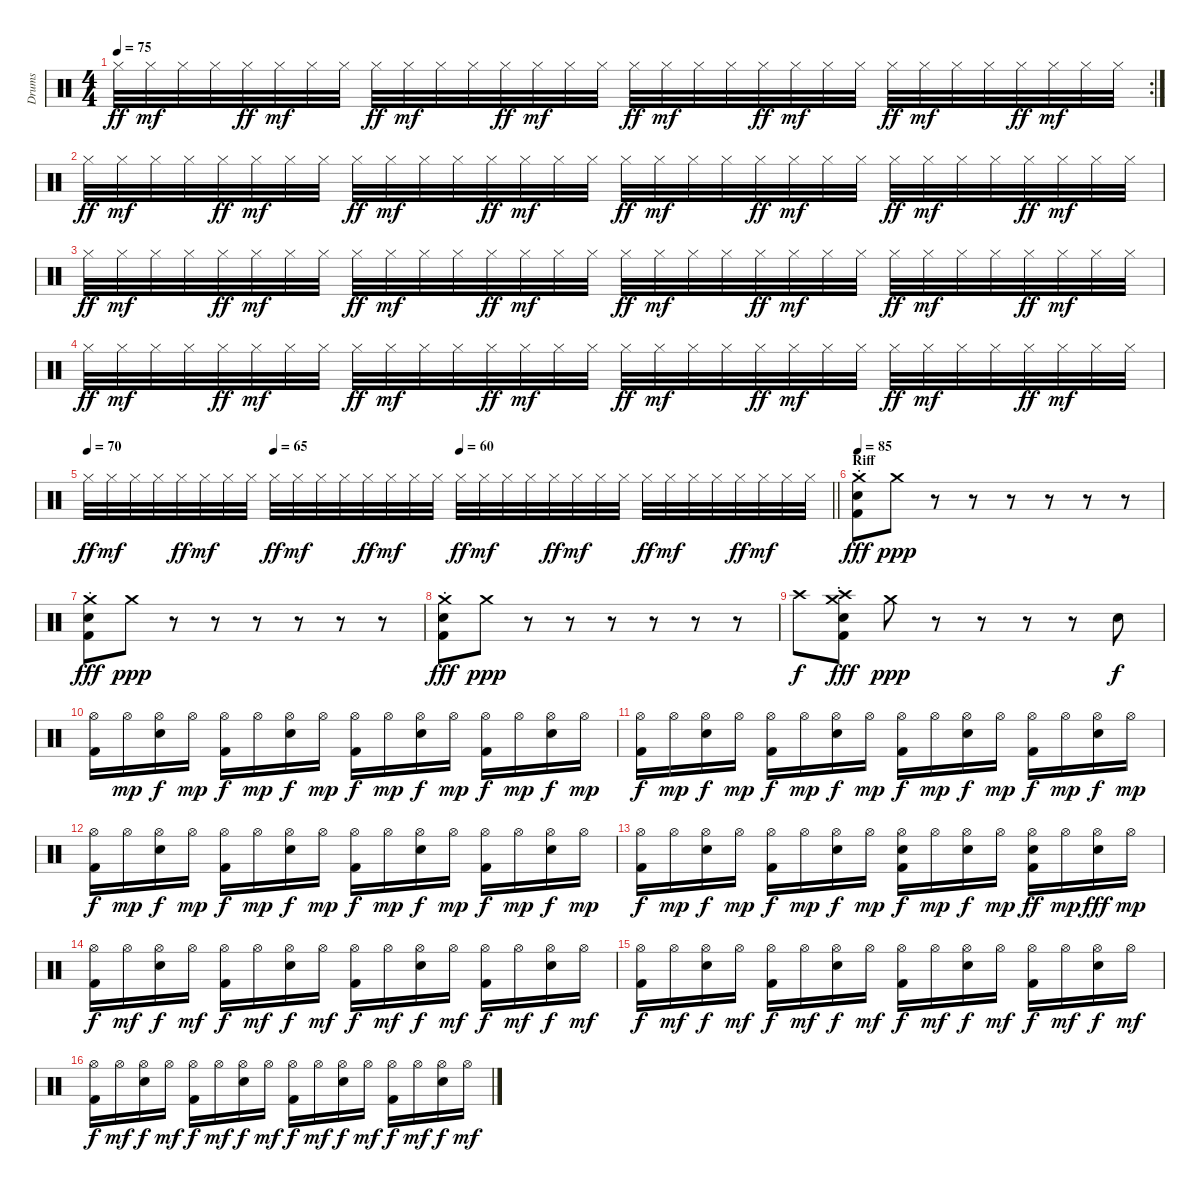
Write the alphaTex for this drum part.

\track ("Drums" "Drums") {instrument percussion}
\staff {score}
\articulation defaults
\rc 2
\ts (4 4)
\tempo 75
\clef neutral
\ks aminor "Hi-Hat (closed)".32{dy ff} "Hi-Hat (closed)".32{dy mf} "Hi-Hat (closed)".32 "Hi-Hat (closed)".32 "Hi-Hat (closed)".32{dy ff} "Hi-Hat (closed)".32{dy mf} "Hi-Hat (closed)".32 "Hi-Hat (closed)".32 "Hi-Hat (closed)".32{dy ff} "Hi-Hat (closed)".32{dy mf} "Hi-Hat (closed)".32 "Hi-Hat (closed)".32 "Hi-Hat (closed)".32{dy ff} "Hi-Hat (closed)".32{dy mf} "Hi-Hat (closed)".32 "Hi-Hat (closed)".32 "Hi-Hat (closed)".32{dy ff} "Hi-Hat (closed)".32{dy mf} "Hi-Hat (closed)".32 "Hi-Hat (closed)".32 "Hi-Hat (closed)".32{dy ff} "Hi-Hat (closed)".32{dy mf} "Hi-Hat (closed)".32 "Hi-Hat (closed)".32 "Hi-Hat (closed)".32{dy ff} "Hi-Hat (closed)".32{dy mf} "Hi-Hat (closed)".32 "Hi-Hat (closed)".32 "Hi-Hat (closed)".32{dy ff} "Hi-Hat (closed)".32{dy mf} "Hi-Hat (closed)".32 "Hi-Hat (closed)".32
|
"Hi-Hat (closed)".32{dy ff} "Hi-Hat (closed)".32{dy mf} "Hi-Hat (closed)".32 "Hi-Hat (closed)".32 "Hi-Hat (closed)".32{dy ff} "Hi-Hat (closed)".32{dy mf} "Hi-Hat (closed)".32 "Hi-Hat (closed)".32 "Hi-Hat (closed)".32{dy ff} "Hi-Hat (closed)".32{dy mf} "Hi-Hat (closed)".32 "Hi-Hat (closed)".32 "Hi-Hat (closed)".32{dy ff} "Hi-Hat (closed)".32{dy mf} "Hi-Hat (closed)".32 "Hi-Hat (closed)".32 "Hi-Hat (closed)".32{dy ff} "Hi-Hat (closed)".32{dy mf} "Hi-Hat (closed)".32 "Hi-Hat (closed)".32 "Hi-Hat (closed)".32{dy ff} "Hi-Hat (closed)".32{dy mf} "Hi-Hat (closed)".32 "Hi-Hat (closed)".32 "Hi-Hat (closed)".32{dy ff} "Hi-Hat (closed)".32{dy mf} "Hi-Hat (closed)".32 "Hi-Hat (closed)".32 "Hi-Hat (closed)".32{dy ff} "Hi-Hat (closed)".32{dy mf} "Hi-Hat (closed)".32 "Hi-Hat (closed)".32 |
"Hi-Hat (closed)".32{dy ff} "Hi-Hat (closed)".32{dy mf} "Hi-Hat (closed)".32 "Hi-Hat (closed)".32 "Hi-Hat (closed)".32{dy ff} "Hi-Hat (closed)".32{dy mf} "Hi-Hat (closed)".32 "Hi-Hat (closed)".32 "Hi-Hat (closed)".32{dy ff} "Hi-Hat (closed)".32{dy mf} "Hi-Hat (closed)".32 "Hi-Hat (closed)".32 "Hi-Hat (closed)".32{dy ff} "Hi-Hat (closed)".32{dy mf} "Hi-Hat (closed)".32 "Hi-Hat (closed)".32 "Hi-Hat (closed)".32{dy ff} "Hi-Hat (closed)".32{dy mf} "Hi-Hat (closed)".32 "Hi-Hat (closed)".32 "Hi-Hat (closed)".32{dy ff} "Hi-Hat (closed)".32{dy mf} "Hi-Hat (closed)".32 "Hi-Hat (closed)".32 "Hi-Hat (closed)".32{dy ff} "Hi-Hat (closed)".32{dy mf} "Hi-Hat (closed)".32 "Hi-Hat (closed)".32 "Hi-Hat (closed)".32{dy ff} "Hi-Hat (closed)".32{dy mf} "Hi-Hat (closed)".32 "Hi-Hat (closed)".32 |
"Hi-Hat (closed)".32{dy ff} "Hi-Hat (closed)".32{dy mf} "Hi-Hat (closed)".32 "Hi-Hat (closed)".32 "Hi-Hat (closed)".32{dy ff} "Hi-Hat (closed)".32{dy mf} "Hi-Hat (closed)".32 "Hi-Hat (closed)".32 "Hi-Hat (closed)".32{dy ff} "Hi-Hat (closed)".32{dy mf} "Hi-Hat (closed)".32 "Hi-Hat (closed)".32 "Hi-Hat (closed)".32{dy ff} "Hi-Hat (closed)".32{dy mf} "Hi-Hat (closed)".32 "Hi-Hat (closed)".32 "Hi-Hat (closed)".32{dy ff} "Hi-Hat (closed)".32{dy mf} "Hi-Hat (closed)".32 "Hi-Hat (closed)".32 "Hi-Hat (closed)".32{dy ff} "Hi-Hat (closed)".32{dy mf} "Hi-Hat (closed)".32 "Hi-Hat (closed)".32 "Hi-Hat (closed)".32{dy ff} "Hi-Hat (closed)".32{dy mf} "Hi-Hat (closed)".32 "Hi-Hat (closed)".32 "Hi-Hat (closed)".32{dy ff} "Hi-Hat (closed)".32{dy mf} "Hi-Hat (closed)".32 "Hi-Hat (closed)".32 |
\tempo 70
\tempo (65 0.25)
\tempo (60 0.5)
\barLineRight lightlight "Hi-Hat (closed)".32{dy ff} "Hi-Hat (closed)".32{dy mf} "Hi-Hat (closed)".32 "Hi-Hat (closed)".32 "Hi-Hat (closed)".32{dy ff} "Hi-Hat (closed)".32{dy mf} "Hi-Hat (closed)".32 "Hi-Hat (closed)".32 "Hi-Hat (closed)".32{dy ff} "Hi-Hat (closed)".32{dy mf} "Hi-Hat (closed)".32 "Hi-Hat (closed)".32 "Hi-Hat (closed)".32{dy ff} "Hi-Hat (closed)".32{dy mf} "Hi-Hat (closed)".32 "Hi-Hat (closed)".32 "Hi-Hat (closed)".32{dy ff} "Hi-Hat (closed)".32{dy mf} "Hi-Hat (closed)".32 "Hi-Hat (closed)".32 "Hi-Hat (closed)".32{dy ff} "Hi-Hat (closed)".32{dy mf} "Hi-Hat (closed)".32 "Hi-Hat (closed)".32 "Hi-Hat (closed)".32{dy ff} "Hi-Hat (closed)".32{dy mf} "Hi-Hat (closed)".32 "Hi-Hat (closed)".32 "Hi-Hat (closed)".32{dy ff} "Hi-Hat (closed)".32{dy mf} "Hi-Hat (closed)".32 "Hi-Hat (closed)".32
|
\section ("" "Riff")
\tempo 85
("Kick (hit) 2"{st} "Snare (hit) 2" "Crash medium (hit)"{st}).8{dy fff} "Crash medium (hit)".8{dy ppp} r.8 r.8 r.8 r.8 r.8 r.8 |
("Kick (hit) 2"{st} "Snare (hit) 2" "Crash medium (hit)"{st}).8{dy fff} "Crash medium (hit)".8{dy ppp} r.8 r.8 r.8 r.8 r.8 r.8 |
("Kick (hit) 2"{st} "Snare (hit) 2" "Crash medium (hit)"{st}).8{dy fff} "Crash medium (hit)".8{dy ppp} r.8 r.8 r.8 r.8 r.8 r.8 |
"Crash high (hit)".8{dy f} ("Kick (hit) 2"{st} "Snare (hit) 2" "Crash high (hit)" "Crash medium (hit)"{st}).8{dy fff} "Crash medium (hit)".8{dy ppp} r.8 r.8 r.8 r.8 "Snare (hit) 2".8{dy f} |
("Hi-Hat (open)" "Kick (hit) 2").16 "Hi-Hat (open)".16{dy mp} ("Hi-Hat (open)" "Snare (hit) 2").16{dy f} "Hi-Hat (open)".16{dy mp} ("Hi-Hat (open)" "Kick (hit) 2").16{dy f} "Hi-Hat (open)".16{dy mp} ("Hi-Hat (open)" "Snare (hit) 2").16{dy f} "Hi-Hat (open)".16{dy mp} ("Hi-Hat (open)" "Kick (hit) 2").16{dy f} "Hi-Hat (open)".16{dy mp} ("Hi-Hat (open)" "Snare (hit) 2").16{dy f} "Hi-Hat (open)".16{dy mp} ("Hi-Hat (open)" "Kick (hit) 2").16{dy f} "Hi-Hat (open)".16{dy mp} ("Hi-Hat (open)" "Snare (hit) 2").16{dy f} "Hi-Hat (open)".16{dy mp} |
("Hi-Hat (open)" "Kick (hit) 2").16{dy f} "Hi-Hat (open)".16{dy mp} ("Hi-Hat (open)" "Snare (hit) 2").16{dy f} "Hi-Hat (open)".16{dy mp} ("Hi-Hat (open)" "Kick (hit) 2").16{dy f} "Hi-Hat (open)".16{dy mp} ("Hi-Hat (open)" "Snare (hit) 2").16{dy f} "Hi-Hat (open)".16{dy mp} ("Hi-Hat (open)" "Kick (hit) 2").16{dy f} "Hi-Hat (open)".16{dy mp} ("Hi-Hat (open)" "Snare (hit) 2").16{dy f} "Hi-Hat (open)".16{dy mp} ("Hi-Hat (open)" "Kick (hit) 2").16{dy f} "Hi-Hat (open)".16{dy mp} ("Hi-Hat (open)" "Snare (hit) 2").16{dy f} "Hi-Hat (open)".16{dy mp} |
("Hi-Hat (open)" "Kick (hit) 2").16{dy f} "Hi-Hat (open)".16{dy mp} ("Hi-Hat (open)" "Snare (hit) 2").16{dy f} "Hi-Hat (open)".16{dy mp} ("Hi-Hat (open)" "Kick (hit) 2").16{dy f} "Hi-Hat (open)".16{dy mp} ("Hi-Hat (open)" "Snare (hit) 2").16{dy f} "Hi-Hat (open)".16{dy mp} ("Hi-Hat (open)" "Kick (hit) 2").16{dy f} "Hi-Hat (open)".16{dy mp} ("Hi-Hat (open)" "Snare (hit) 2").16{dy f} "Hi-Hat (open)".16{dy mp} ("Hi-Hat (open)" "Kick (hit) 2").16{dy f} "Hi-Hat (open)".16{dy mp} ("Hi-Hat (open)" "Snare (hit) 2").16{dy f} "Hi-Hat (open)".16{dy mp} |
("Hi-Hat (open)" "Kick (hit) 2").16{dy f} "Hi-Hat (open)".16{dy mp} ("Hi-Hat (open)" "Snare (hit) 2").16{dy f} "Hi-Hat (open)".16{dy mp} ("Hi-Hat (open)" "Kick (hit) 2").16{dy f} "Hi-Hat (open)".16{dy mp} ("Hi-Hat (open)" "Snare (hit) 2").16{dy f} "Hi-Hat (open)".16{dy mp} ("Hi-Hat (open)" "Kick (hit) 2" "Snare (hit) 2").16{dy f} "Hi-Hat (open)".16{dy mp} ("Hi-Hat (open)" "Snare (hit) 2").16{dy f} "Hi-Hat (open)".16{dy mp} ("Hi-Hat (open)" "Kick (hit) 2" "Snare (hit) 2").16{dy ff} "Hi-Hat (open)".16{dy mp} ("Hi-Hat (open)" "Snare (hit) 2").16{dy fff} "Hi-Hat (open)".16{dy mp} |
("Hi-Hat (open)" "Kick (hit) 2").16{dy f} "Hi-Hat (open)".16{dy mf} ("Hi-Hat (open)" "Snare (hit) 2").16{dy f} "Hi-Hat (open)".16{dy mf} ("Hi-Hat (open)" "Kick (hit) 2").16{dy f} "Hi-Hat (open)".16{dy mf} ("Hi-Hat (open)" "Snare (hit) 2").16{dy f} "Hi-Hat (open)".16{dy mf} ("Hi-Hat (open)" "Kick (hit) 2").16{dy f} "Hi-Hat (open)".16{dy mf} ("Hi-Hat (open)" "Snare (hit) 2").16{dy f} "Hi-Hat (open)".16{dy mf} ("Hi-Hat (open)" "Kick (hit) 2").16{dy f} "Hi-Hat (open)".16{dy mf} ("Hi-Hat (open)" "Snare (hit) 2").16{dy f} "Hi-Hat (open)".16{dy mf} |
("Hi-Hat (open)" "Kick (hit) 2").16{dy f} "Hi-Hat (open)".16{dy mf} ("Hi-Hat (open)" "Snare (hit) 2").16{dy f} "Hi-Hat (open)".16{dy mf} ("Hi-Hat (open)" "Kick (hit) 2").16{dy f} "Hi-Hat (open)".16{dy mf} ("Hi-Hat (open)" "Snare (hit) 2").16{dy f} "Hi-Hat (open)".16{dy mf} ("Hi-Hat (open)" "Kick (hit) 2").16{dy f} "Hi-Hat (open)".16{dy mf} ("Hi-Hat (open)" "Snare (hit) 2").16{dy f} "Hi-Hat (open)".16{dy mf} ("Hi-Hat (open)" "Kick (hit) 2").16{dy f} "Hi-Hat (open)".16{dy mf} ("Hi-Hat (open)" "Snare (hit) 2").16{dy f} "Hi-Hat (open)".16{dy mf} |
("Hi-Hat (open)" "Kick (hit) 2").16{dy f} "Hi-Hat (open)".16{dy mf} ("Hi-Hat (open)" "Snare (hit) 2").16{dy f} "Hi-Hat (open)".16{dy mf} ("Hi-Hat (open)" "Kick (hit) 2").16{dy f} "Hi-Hat (open)".16{dy mf} ("Hi-Hat (open)" "Snare (hit) 2").16{dy f} "Hi-Hat (open)".16{dy mf} ("Hi-Hat (open)" "Kick (hit) 2").16{dy f} "Hi-Hat (open)".16{dy mf} ("Hi-Hat (open)" "Snare (hit) 2").16{dy f} "Hi-Hat (open)".16{dy mf} ("Hi-Hat (open)" "Kick (hit) 2").16{dy f} "Hi-Hat (open)".16{dy mf} ("Hi-Hat (open)" "Snare (hit) 2").16{dy f} "Hi-Hat (open)".16{dy mf}
